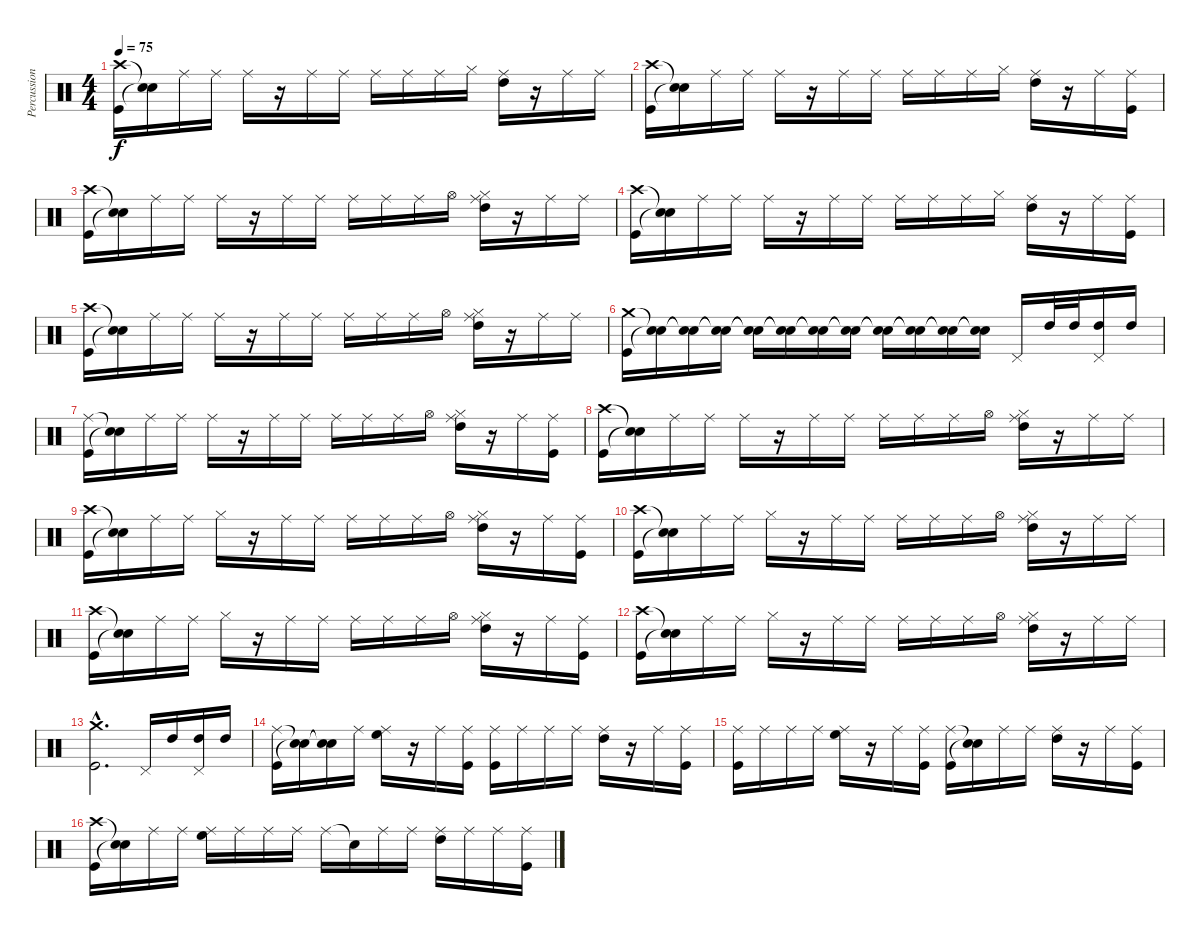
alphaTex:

\track ("Percussions" "Percussion") {instrument percussion}
\staff {score}
\articulation defaults
\ts (4 4)
\tempo 75
\clef neutral
\ks c
("Crash high (hit)" "Kick (hit)").16{dy f} ("Snare (hit)"{t} "Snare (hit)"{t}).16 "Ride (middle)".16 "Ride (middle)".16 "Ride (middle)".16 r.16 "Ride (middle)".16 "Ride (middle)".16 "Ride (middle)".16 "Ride (middle)".16 "Ride (middle)".16 "Hi-Hat (closed)".16 ("Ride (middle)" "High Tom (hit)").16 r.16 "Ride (middle)".16 "Ride (middle)".16 |
("Crash high (hit)" "Kick (hit)").16 ("Snare (hit)"{t} "Snare (hit)"{t}).16 "Ride (middle)".16 "Ride (middle)".16 "Ride (middle)".16 r.16 "Ride (middle)".16 "Ride (middle)".16 "Ride (middle)".16 "Ride (middle)".16 "Ride (middle)".16 "Hi-Hat (closed)".16 ("Ride (middle)" "High Tom (hit)").16 r.16 "Ride (middle)".16 ("Ride (middle)" "Kick (hit)").16 |
("Crash high (hit)" "Kick (hit)").16 ("Snare (hit)"{t} "Snare (hit)"{t}).16 "Ride (middle)".16 "Ride (middle)".16 "Ride (middle)".16 r.16 "Ride (middle)".16 "Ride (middle)".16 "Ride (middle)".16 "Ride (middle)".16 "Ride (middle)".16 "Hi-Hat (open)".16 ("Ride (middle)" "High Tom (hit)" "Hi-Hat (closed)").16 r.16 "Ride (middle)".16 "Ride (middle)".16 |
("Crash high (hit)" "Kick (hit)").16 ("Snare (hit)"{t} "Snare (hit)"{t}).16 "Ride (middle)".16 "Ride (middle)".16 "Ride (middle)".16 r.16 "Ride (middle)".16 "Ride (middle)".16 "Ride (middle)".16 "Ride (middle)".16 "Ride (middle)".16 "Hi-Hat (closed)".16 ("Ride (middle)" "High Tom (hit)").16 r.16 "Ride (middle)".16 ("Ride (middle)" "Kick (hit)").16 |
("Crash high (hit)" "Kick (hit)").16 ("Snare (hit)"{t} "Snare (hit)"{t}).16 "Ride (middle)".16 "Ride (middle)".16 "Ride (middle)".16 r.16 "Ride (middle)".16 "Ride (middle)".16 "Ride (middle)".16 "Ride (middle)".16 "Ride (middle)".16 "Hi-Hat (open)".16 ("Ride (middle)" "High Tom (hit)" "Hi-Hat (closed)").16 r.16 "Ride (middle)".16 "Ride (middle)".16 |
("Crash medium (hit)" "Kick (hit)").16 ("Snare (hit)"{t} "Snare (hit)"{t}).16 ("Snare (hit)"{t} "Snare (hit)"{t}).16 ("Snare (hit)"{t} "Snare (hit)"{t}).16 ("Snare (hit)"{t} "Snare (hit)"{t}).16 ("Snare (hit)"{t} "Snare (hit)"{t}).16 ("Snare (hit)"{t} "Snare (hit)"{t}).16 ("Snare (hit)"{t} "Snare (hit)"{t}).16 ("Snare (hit)"{t} "Snare (hit)"{t}).16 ("Snare (hit)"{t} "Snare (hit)"{t}).16 ("Snare (hit)"{t} "Snare (hit)"{t}).16 ("Snare (hit)"{t} "Snare (hit)"{t}).16 "Pedal Hi-Hat (hit)".16 "High Tom (hit)".32 "High Tom (hit)".32 ("High Tom (hit)" "Pedal Hi-Hat (hit)").16 "High Tom (hit)".16 |
("Ride (middle)" "Kick (hit)").16 ("Snare (hit)"{t} "Snare (hit)"{t}).16 "Ride (middle)".16 "Ride (middle)".16 "Ride (middle)".16 r.16 "Ride (middle)".16 "Ride (middle)".16 "Ride (middle)".16 "Ride (middle)".16 "Ride (middle)".16 "Hi-Hat (open)".16 ("Ride (middle)" "High Tom (hit)" "Hi-Hat (closed)").16 r.16 "Ride (middle)".16 ("Ride (middle)" "Kick (hit)").16 |
("Crash high (hit)" "Kick (hit)").16 ("Snare (hit)"{t} "Snare (hit)"{t}).16 "Ride (middle)".16 "Ride (middle)".16 "Ride (middle)".16 r.16 "Ride (middle)".16 "Ride (middle)".16 "Ride (middle)".16 "Ride (middle)".16 "Ride (middle)".16 "Hi-Hat (open)".16 ("Ride (middle)" "High Tom (hit)" "Hi-Hat (closed)").16 r.16 "Ride (middle)".16 "Ride (middle)".16 |
("Crash high (hit)" "Kick (hit)").16 ("Snare (hit)"{t} "Snare (hit)"{t}).16 "Ride (middle)".16 "Ride (middle)".16 "Hi-Hat (closed)".16 r.16 "Ride (middle)".16 "Ride (middle)".16 "Ride (middle)".16 "Ride (middle)".16 "Ride (middle)".16 "Hi-Hat (open)".16 ("Ride (middle)" "High Tom (hit)" "Hi-Hat (closed)").16 r.16 "Ride (middle)".16 ("Ride (middle)" "Kick (hit)").16 |
("Crash high (hit)" "Kick (hit)").16 ("Snare (hit)"{t} "Snare (hit)"{t}).16 "Ride (middle)".16 "Ride (middle)".16 "Hi-Hat (closed)".16 r.16 "Ride (middle)".16 "Ride (middle)".16 "Ride (middle)".16 "Ride (middle)".16 "Ride (middle)".16 "Hi-Hat (open)".16 ("Ride (middle)" "High Tom (hit)" "Hi-Hat (closed)").16 r.16 "Ride (middle)".16 "Ride (middle)".16 |
("Crash high (hit)" "Kick (hit)").16 ("Snare (hit)"{t} "Snare (hit)"{t}).16 "Ride (middle)".16 "Ride (middle)".16 "Hi-Hat (closed)".16 r.16 "Ride (middle)".16 "Ride (middle)".16 "Ride (middle)".16 "Ride (middle)".16 "Ride (middle)".16 "Hi-Hat (open)".16 ("Ride (middle)" "High Tom (hit)" "Hi-Hat (closed)").16 r.16 "Ride (middle)".16 ("Ride (middle)" "Kick (hit)").16 |
("Crash high (hit)" "Kick (hit)").16 ("Snare (hit)"{t} "Snare (hit)"{t}).16 "Ride (middle)".16 "Ride (middle)".16 "Hi-Hat (closed)".16 r.16 "Ride (middle)".16 "Ride (middle)".16 "Ride (middle)".16 "Ride (middle)".16 "Ride (middle)".16 "Hi-Hat (open)".16 ("Ride (middle)" "High Tom (hit)" "Hi-Hat (closed)").16 r.16 "Ride (middle)".16 "Ride (middle)".16 |
("Crash medium (hit)"{hac} "Kick (hit)"{hac}).2{d} "Pedal Hi-Hat (hit)".16 "High Tom (hit)".16 ("High Tom (hit)" "Pedal Hi-Hat (hit)").16 "High Tom (hit)".16 |
("Ride (middle)" "Kick (hit)").16 ("Snare (hit)"{t} "Snare (hit)"{t}).16 ("Snare (hit)"{t} "Snare (hit)"{t}).16 "Ride (middle)".16 ("Ride (middle)" "High Floor Tom (hit)").16 r.16 "Ride (middle)".16 ("Ride (middle)" "Kick (hit)").16 ("Ride (middle)" "Kick (hit)").16 "Ride (middle)".16 "Ride (middle)".16 "Ride (middle)".16 ("Ride (middle)" "High Tom (hit)").16 r.16 "Ride (middle)".16 ("Ride (middle)" "Kick (hit)").16 |
("Ride (middle)" "Kick (hit)").16 "Ride (middle)".16 "Ride (middle)".16 "Ride (middle)".16 ("Ride (middle)" "High Floor Tom (hit)").16 r.16 "Ride (middle)".16 ("Ride (middle)" "Kick (hit)").16 ("Ride (middle)" "Kick (hit)").16 ("Snare (hit)"{t} "Snare (hit)"{t}).16 "Ride (middle)".16 "Ride (middle)".16 ("Ride (middle)" "High Tom (hit)").16 r.16 "Ride (middle)".16 ("Ride (middle)" "Kick (hit)").16 |
("Crash high (hit)" "Kick (hit)").16 ("Snare (hit)"{t} "Snare (hit)"{t}).16 "Ride (middle)".16 "Ride (middle)".16 ("Ride (middle)" "High Floor Tom (hit)").16 "Ride (middle)".16 "Ride (middle)".16 "Ride (middle)".16 "Ride (middle)".16 "Snare (hit)"{t}.16 "Ride (middle)".16 "Ride (middle)".16 ("Ride (middle)" "High Tom (hit)").16 "Ride (middle)".16 "Ride (middle)".16 ("Ride (middle)" "Kick (hit)").16
